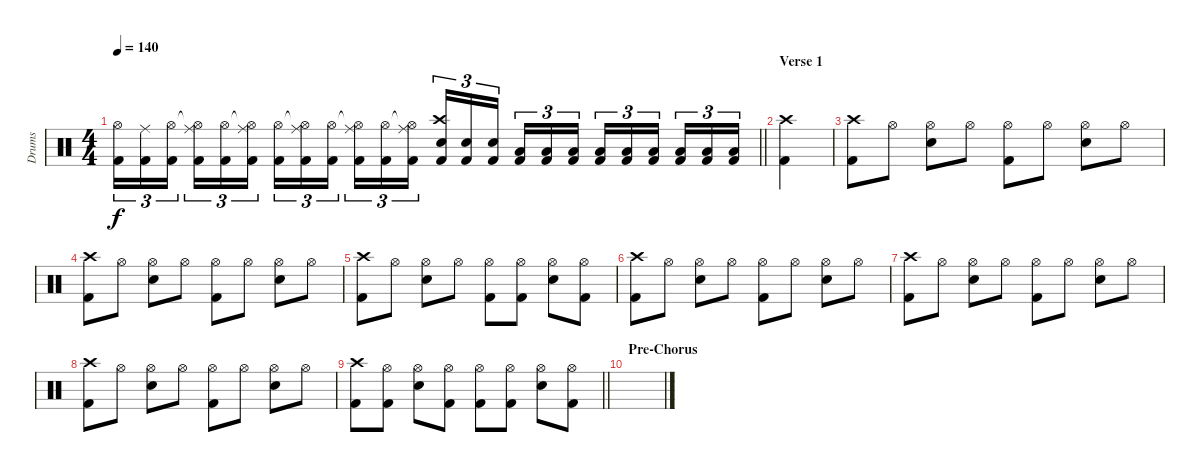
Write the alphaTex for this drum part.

\track ("Drums" "Drums") {instrument percussion}
\staff {score}
\articulation defaults
\ts (4 4)
\tempo 140
\clef neutral
\barLineRight lightlight
\ks c
("Hi-Hat (open)" "Kick (hit) 2").16{tu (3 2) dy f} ("Ride (middle)" "Kick (hit) 2").16{tu (3 2)} ("Hi-Hat (open)" "Kick (hit) 2").16{tu (3 2) beam splitsecondary} ("Hi-Hat (open)"{t} "Ride (middle)" "Kick (hit) 2").16{tu (3 2)} ("Hi-Hat (open)" "Kick (hit) 2").16{tu (3 2)} ("Hi-Hat (open)"{t} "Ride (middle)" "Kick (hit) 2").16{tu (3 2)} ("Hi-Hat (open)" "Kick (hit) 2").16{tu (3 2)} ("Hi-Hat (open)"{t} "Ride (middle)" "Kick (hit) 2").16{tu (3 2)} ("Hi-Hat (open)" "Kick (hit) 2").16{tu (3 2) beam splitsecondary} ("Hi-Hat (open)"{t} "Ride (middle)" "Kick (hit) 2").16{tu (3 2)} ("Hi-Hat (open)" "Kick (hit) 2").16{tu (3 2)} ("Hi-Hat (open)"{t} "Ride (middle)" "Kick (hit) 2").16{tu (3 2)} ("Crash high (hit)" "Snare (hit) 2" "Kick (hit) 2").16{tu (3 2)} ("Snare (hit) 2" "Kick (hit) 2").16{tu (3 2)} ("Snare (hit) 2" "Kick (hit) 2").16{tu (3 2) beam splitsecondary} ("Low Floor Tom (hit)" "Kick (hit) 2").16{tu (3 2)} ("Low Floor Tom (hit)" "Kick (hit) 2").16{tu (3 2)} ("Low Floor Tom (hit)" "Kick (hit) 2").16{tu (3 2)} ("Low Tom (hit)" "Kick (hit) 2").16{tu (3 2)} ("Low Tom (hit)" "Kick (hit) 2").16{tu (3 2)} ("Low Tom (hit)" "Kick (hit) 2").16{tu (3 2) beam splitsecondary} ("Low Floor Tom (hit)" "Kick (hit) 2").16{tu (3 2)} ("Low Floor Tom (hit)" "Kick (hit) 2").16{tu (3 2)} ("Low Floor Tom (hit)" "Kick (hit) 2").16{tu (3 2)} |
\section ("" "Verse 1")
("Crash high (hit)" "Kick (hit) 2").4 |
("Crash high (hit)" "Kick (hit) 2").8 "Hi-Hat (open)".8 ("Hi-Hat (open)" "Snare (hit) 2").8 "Hi-Hat (open)".8 ("Hi-Hat (open)" "Kick (hit) 2").8 "Hi-Hat (open)".8 ("Hi-Hat (open)" "Snare (hit) 2").8 "Hi-Hat (open)".8 |
("Crash high (hit)" "Kick (hit) 2").8 "Hi-Hat (open)".8 ("Hi-Hat (open)" "Snare (hit) 2").8 "Hi-Hat (open)".8 ("Hi-Hat (open)" "Kick (hit) 2").8 "Hi-Hat (open)".8 ("Hi-Hat (open)" "Snare (hit) 2").8 "Hi-Hat (open)".8 |
("Crash high (hit)" "Kick (hit) 2").8 "Hi-Hat (open)".8 ("Hi-Hat (open)" "Snare (hit) 2").8 "Hi-Hat (open)".8 ("Hi-Hat (open)" "Kick (hit) 2").8 ("Hi-Hat (open)" "Kick (hit) 2").8 ("Hi-Hat (open)" "Snare (hit) 2").8 ("Hi-Hat (open)" "Kick (hit) 2").8 |
("Crash high (hit)" "Kick (hit) 2").8 "Hi-Hat (open)".8 ("Hi-Hat (open)" "Snare (hit) 2").8 "Hi-Hat (open)".8 ("Hi-Hat (open)" "Kick (hit) 2").8 "Hi-Hat (open)".8 ("Hi-Hat (open)" "Snare (hit) 2").8 "Hi-Hat (open)".8 |
("Crash high (hit)" "Kick (hit) 2").8 "Hi-Hat (open)".8 ("Hi-Hat (open)" "Snare (hit) 2").8 "Hi-Hat (open)".8 ("Hi-Hat (open)" "Kick (hit) 2").8 "Hi-Hat (open)".8 ("Hi-Hat (open)" "Snare (hit) 2").8 "Hi-Hat (open)".8 |
("Crash high (hit)" "Kick (hit) 2").8 "Hi-Hat (open)".8 ("Hi-Hat (open)" "Snare (hit) 2").8 "Hi-Hat (open)".8 ("Hi-Hat (open)" "Kick (hit) 2").8 "Hi-Hat (open)".8 ("Hi-Hat (open)" "Snare (hit) 2").8 "Hi-Hat (open)".8 |
\barLineRight lightlight
("Crash high (hit)" "Kick (hit) 2").8 ("Hi-Hat (open)" "Kick (hit) 2").8 ("Hi-Hat (open)" "Snare (hit) 2").8 ("Hi-Hat (open)" "Kick (hit) 2").8 ("Hi-Hat (open)" "Kick (hit) 2").8 ("Hi-Hat (open)" "Kick (hit) 2").8 ("Hi-Hat (open)" "Snare (hit) 2").8 ("Hi-Hat (open)" "Kick (hit) 2").8 |
\section ("" "Pre-Chorus")
